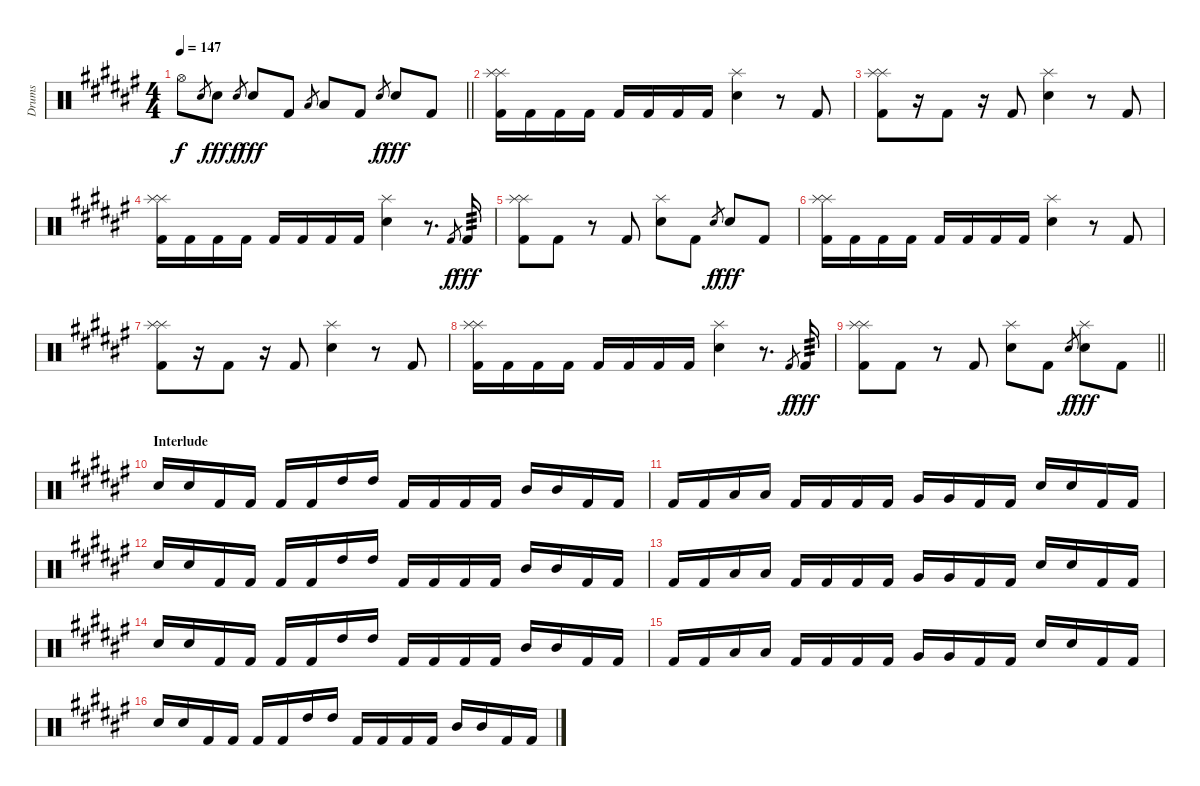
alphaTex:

\track ("Drums" "Drums") {instrument percussion}
\staff {score}
\articulation defaults
\ts (4 4)
\tempo 147
\clef neutral
\barLineRight lightlight
\ks d#minor "Hi-Hat (open)".8{dy f} "Snare (hit) 2".8{gr} "Snare (hit) 2".8{dy fff} "Snare (hit) 2".8{gr dy f} "Snare (hit) 2".8{dy fff} "Kick (hit) 2".8 "Low Tom (hit)".8{gr} "Low Tom (hit)".8 "Kick (hit) 2".8 "Snare (hit) 2".8{gr dy f} "Snare (hit) 2".8{dy fff} "Kick (hit) 2".8
|
\section ("" "")
("Splash (hit)" "Splash (hit)" "Kick (hit) 2").16 "Kick (hit) 2".16 "Kick (hit) 2".16 "Kick (hit) 2".16 "Kick (hit) 2".16 "Kick (hit) 2".16 "Kick (hit) 2".16 "Kick (hit) 2".16 ("Splash (hit)" "Snare (hit) 2").4 r.8 "Kick (hit) 2".8 |
("Splash (hit)" "Splash (hit)" "Kick (hit) 2").8 r.16 "Kick (hit) 2".8 r.16 "Kick (hit) 2".8 ("Splash (hit)" "Snare (hit) 2").4 r.8 "Kick (hit) 2".8 |
("Splash (hit)" "Splash (hit)" "Kick (hit) 2").16 "Kick (hit) 2".16 "Kick (hit) 2".16 "Kick (hit) 2".16 "Kick (hit) 2".16 "Kick (hit) 2".16 "Kick (hit) 2".16 "Kick (hit) 2".16 ("Splash (hit)" "Snare (hit) 2").4 r.8{d} "Kick (hit) 2".8{gr dy f} "Kick (hit) 2".16{tp 3 dy fff} |
("Splash (hit)" "Splash (hit)" "Kick (hit) 2").8 "Kick (hit) 2".8 r.8 "Kick (hit) 2".8 ("Splash (hit)" "Snare (hit) 2").8 "Kick (hit) 2".8 "Snare (hit) 2".8{gr dy f} "Snare (hit) 2".8{dy fff} "Kick (hit) 2".8 |
("Splash (hit)" "Splash (hit)" "Kick (hit) 2").16 "Kick (hit) 2".16 "Kick (hit) 2".16 "Kick (hit) 2".16 "Kick (hit) 2".16 "Kick (hit) 2".16 "Kick (hit) 2".16 "Kick (hit) 2".16 ("Splash (hit)" "Snare (hit) 2").4 r.8 "Kick (hit) 2".8 |
("Splash (hit)" "Splash (hit)" "Kick (hit) 2").8 r.16 "Kick (hit) 2".8 r.16 "Kick (hit) 2".8 ("Splash (hit)" "Snare (hit) 2").4 r.8 "Kick (hit) 2".8 |
("Splash (hit)" "Splash (hit)" "Kick (hit) 2").16 "Kick (hit) 2".16 "Kick (hit) 2".16 "Kick (hit) 2".16 "Kick (hit) 2".16 "Kick (hit) 2".16 "Kick (hit) 2".16 "Kick (hit) 2".16 ("Splash (hit)" "Snare (hit) 2").4 r.8{d} "Kick (hit) 2".8{gr dy f} "Kick (hit) 2".16{tp 3 dy fff} |
\barLineRight lightlight
("Splash (hit)" "Splash (hit)" "Kick (hit) 2").8 "Kick (hit) 2".8 r.8 "Kick (hit) 2".8 ("Splash (hit)" "Snare (hit) 2").8 "Kick (hit) 2".8 "Snare (hit) 2".8{gr dy f} ("Splash (hit)" "Snare (hit) 2").8{dy fff} "Kick (hit) 2".8 |
\section ("" "Interlude")
"Snare (hit) 2".16 "Snare (hit) 2".16 "Kick (hit) 2".16 "Kick (hit) 2".16 "Kick (hit) 2".16 "Kick (hit) 2".16 "High Tom (hit)".16 "High Tom (hit)".16 "Kick (hit) 2".16 "Kick (hit) 2".16 "Kick (hit) 2".16 "Kick (hit) 2".16 "Mid Tom (hit)".16 "Mid Tom (hit)".16 "Kick (hit) 2".16 "Kick (hit) 2".16 |
"Kick (hit) 2".16 "Kick (hit) 2".16 "Low Tom (hit)".16 "Low Tom (hit)".16 "Kick (hit) 2".16 "Kick (hit) 2".16 "Kick (hit) 2".16 "Kick (hit) 2".16 "Very Low Tom (hit)".16 "Very Low Tom (hit)".16 "Kick (hit) 2".16 "Kick (hit) 2".16 "Snare (hit) 2".16 "Snare (hit) 2".16 "Kick (hit) 2".16 "Kick (hit) 2".16 |
"Snare (hit) 2".16 "Snare (hit) 2".16 "Kick (hit) 2".16 "Kick (hit) 2".16 "Kick (hit) 2".16 "Kick (hit) 2".16 "High Tom (hit)".16 "High Tom (hit)".16 "Kick (hit) 2".16 "Kick (hit) 2".16 "Kick (hit) 2".16 "Kick (hit) 2".16 "Mid Tom (hit)".16 "Mid Tom (hit)".16 "Kick (hit) 2".16 "Kick (hit) 2".16 |
"Kick (hit) 2".16 "Kick (hit) 2".16 "Low Tom (hit)".16 "Low Tom (hit)".16 "Kick (hit) 2".16 "Kick (hit) 2".16 "Kick (hit) 2".16 "Kick (hit) 2".16 "Very Low Tom (hit)".16 "Very Low Tom (hit)".16 "Kick (hit) 2".16 "Kick (hit) 2".16 "Snare (hit) 2".16 "Snare (hit) 2".16 "Kick (hit) 2".16 "Kick (hit) 2".16 |
"Snare (hit) 2".16 "Snare (hit) 2".16 "Kick (hit) 2".16 "Kick (hit) 2".16 "Kick (hit) 2".16 "Kick (hit) 2".16 "High Tom (hit)".16 "High Tom (hit)".16 "Kick (hit) 2".16 "Kick (hit) 2".16 "Kick (hit) 2".16 "Kick (hit) 2".16 "Mid Tom (hit)".16 "Mid Tom (hit)".16 "Kick (hit) 2".16 "Kick (hit) 2".16 |
"Kick (hit) 2".16 "Kick (hit) 2".16 "Low Tom (hit)".16 "Low Tom (hit)".16 "Kick (hit) 2".16 "Kick (hit) 2".16 "Kick (hit) 2".16 "Kick (hit) 2".16 "Very Low Tom (hit)".16 "Very Low Tom (hit)".16 "Kick (hit) 2".16 "Kick (hit) 2".16 "Snare (hit) 2".16 "Snare (hit) 2".16 "Kick (hit) 2".16 "Kick (hit) 2".16 |
"Snare (hit) 2".16 "Snare (hit) 2".16 "Kick (hit) 2".16 "Kick (hit) 2".16 "Kick (hit) 2".16 "Kick (hit) 2".16 "High Tom (hit)".16 "High Tom (hit)".16 "Kick (hit) 2".16 "Kick (hit) 2".16 "Kick (hit) 2".16 "Kick (hit) 2".16 "Mid Tom (hit)".16 "Mid Tom (hit)".16 "Kick (hit) 2".16 "Kick (hit) 2".16
